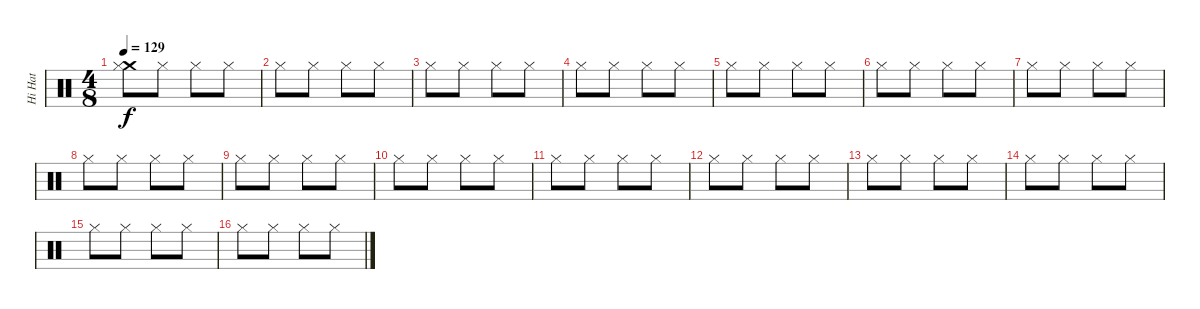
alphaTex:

\track ("Hi Hat" "Hi Hat") {instrument percussion}
\staff {score}
\articulation defaults
\ts (4 8)
\tempo 129
\clef neutral
\ks c
("Crash medium (hit)" "Hi-Hat (closed)").8{dy f} "Hi-Hat (closed)".8 "Hi-Hat (closed)".8 "Hi-Hat (closed)".8 |
"Hi-Hat (closed)".8 "Hi-Hat (closed)".8 "Hi-Hat (closed)".8 "Hi-Hat (closed)".8 |
"Hi-Hat (closed)".8 "Hi-Hat (closed)".8 "Hi-Hat (closed)".8 "Hi-Hat (closed)".8 |
"Hi-Hat (closed)".8 "Hi-Hat (closed)".8 "Hi-Hat (closed)".8 "Hi-Hat (closed)".8 |
"Hi-Hat (closed)".8 "Hi-Hat (closed)".8 "Hi-Hat (closed)".8 "Hi-Hat (closed)".8 |
"Hi-Hat (closed)".8 "Hi-Hat (closed)".8 "Hi-Hat (closed)".8 "Hi-Hat (closed)".8 |
"Hi-Hat (closed)".8 "Hi-Hat (closed)".8 "Hi-Hat (closed)".8 "Hi-Hat (closed)".8 |
"Hi-Hat (closed)".8 "Hi-Hat (closed)".8 "Hi-Hat (closed)".8 "Hi-Hat (closed)".8 |
"Hi-Hat (closed)".8 "Hi-Hat (closed)".8 "Hi-Hat (closed)".8 "Hi-Hat (closed)".8 |
"Hi-Hat (closed)".8 "Hi-Hat (closed)".8 "Hi-Hat (closed)".8 "Hi-Hat (closed)".8 |
"Hi-Hat (closed)".8 "Hi-Hat (closed)".8 "Hi-Hat (closed)".8 "Hi-Hat (closed)".8 |
"Hi-Hat (closed)".8 "Hi-Hat (closed)".8 "Hi-Hat (closed)".8 "Hi-Hat (closed)".8 |
"Hi-Hat (closed)".8 "Hi-Hat (closed)".8 "Hi-Hat (closed)".8 "Hi-Hat (closed)".8 |
"Hi-Hat (closed)".8 "Hi-Hat (closed)".8 "Hi-Hat (closed)".8 "Hi-Hat (closed)".8 |
"Hi-Hat (closed)".8 "Hi-Hat (closed)".8 "Hi-Hat (closed)".8 "Hi-Hat (closed)".8 |
"Hi-Hat (closed)".8 "Hi-Hat (closed)".8 "Hi-Hat (closed)".8 "Hi-Hat (closed)".8
